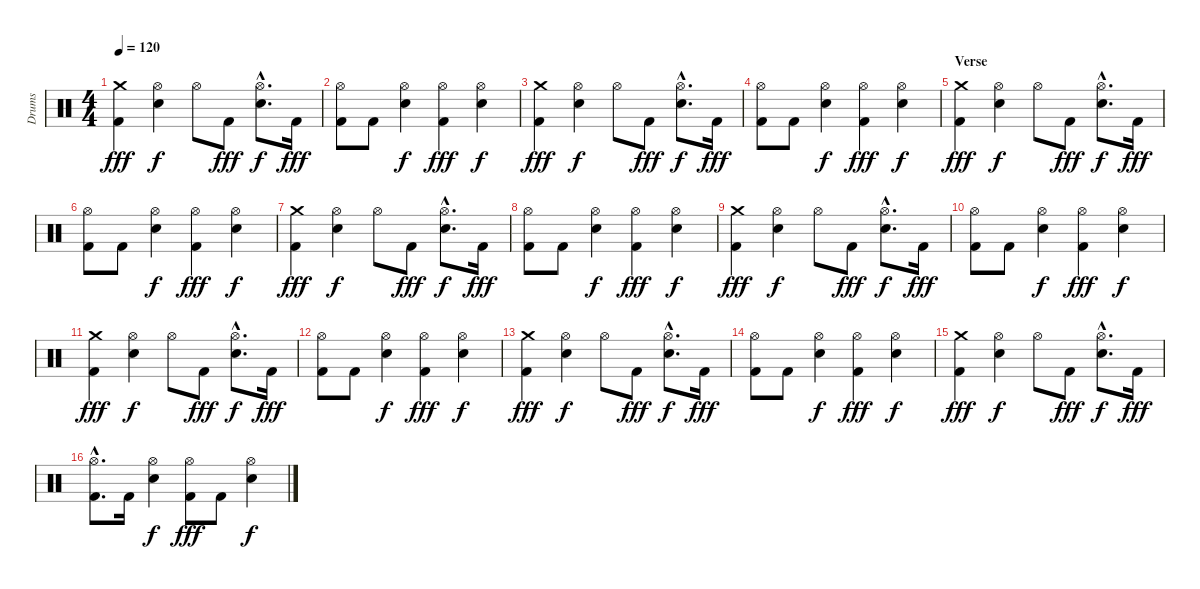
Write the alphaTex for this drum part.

\track ("Drums" "Drums") {instrument percussion}
\staff {score}
\articulation defaults
\ts (4 4)
\tempo 120
\clef neutral
\ks c
("Crash medium (hit)" "Kick (hit) 2").4{dy fff} ("Hi-Hat (open)" "Electric Snare (hit)").4{dy f} "Hi-Hat (open)".8 "Kick (hit) 2".8{dy fff} ("Hi-Hat (open)"{hac} "Electric Snare (hit)"{hac}).8{d dy f} "Kick (hit) 2".16{dy fff} |
("Hi-Hat (open)" "Kick (hit) 2").8 "Kick (hit) 2".8 ("Hi-Hat (open)" "Electric Snare (hit)").4{dy f} ("Hi-Hat (open)" "Kick (hit) 2").4{dy fff} ("Hi-Hat (open)" "Electric Snare (hit)").4{dy f} |
("Crash medium (hit)" "Kick (hit) 2").4{dy fff} ("Hi-Hat (open)" "Electric Snare (hit)").4{dy f} "Hi-Hat (open)".8 "Kick (hit) 2".8{dy fff} ("Hi-Hat (open)"{hac} "Electric Snare (hit)"{hac}).8{d dy f} "Kick (hit) 2".16{dy fff} |
("Hi-Hat (open)" "Kick (hit) 2").8 "Kick (hit) 2".8 ("Hi-Hat (open)" "Electric Snare (hit)").4{dy f} ("Hi-Hat (open)" "Kick (hit) 2").4{dy fff} ("Hi-Hat (open)" "Electric Snare (hit)").4{dy f} |
\section ("" "Verse")
("Crash medium (hit)" "Kick (hit) 2").4{dy fff} ("Hi-Hat (open)" "Electric Snare (hit)").4{dy f} "Hi-Hat (open)".8 "Kick (hit) 2".8{dy fff} ("Hi-Hat (open)"{hac} "Electric Snare (hit)"{hac}).8{d dy f} "Kick (hit) 2".16{dy fff} |
("Hi-Hat (open)" "Kick (hit) 2").8 "Kick (hit) 2".8 ("Hi-Hat (open)" "Electric Snare (hit)").4{dy f} ("Hi-Hat (open)" "Kick (hit) 2").4{dy fff} ("Hi-Hat (open)" "Electric Snare (hit)").4{dy f} |
("Crash medium (hit)" "Kick (hit) 2").4{dy fff} ("Hi-Hat (open)" "Electric Snare (hit)").4{dy f} "Hi-Hat (open)".8 "Kick (hit) 2".8{dy fff} ("Hi-Hat (open)"{hac} "Electric Snare (hit)"{hac}).8{d dy f} "Kick (hit) 2".16{dy fff} |
("Hi-Hat (open)" "Kick (hit) 2").8 "Kick (hit) 2".8 ("Hi-Hat (open)" "Electric Snare (hit)").4{dy f} ("Hi-Hat (open)" "Kick (hit) 2").4{dy fff} ("Hi-Hat (open)" "Electric Snare (hit)").4{dy f} |
("Crash medium (hit)" "Kick (hit) 2").4{dy fff} ("Hi-Hat (open)" "Electric Snare (hit)").4{dy f} "Hi-Hat (open)".8 "Kick (hit) 2".8{dy fff} ("Hi-Hat (open)"{hac} "Electric Snare (hit)"{hac}).8{d dy f} "Kick (hit) 2".16{dy fff} |
("Hi-Hat (open)" "Kick (hit) 2").8 "Kick (hit) 2".8 ("Hi-Hat (open)" "Electric Snare (hit)").4{dy f} ("Hi-Hat (open)" "Kick (hit) 2").4{dy fff} ("Hi-Hat (open)" "Electric Snare (hit)").4{dy f} |
("Crash medium (hit)" "Kick (hit) 2").4{dy fff} ("Hi-Hat (open)" "Electric Snare (hit)").4{dy f} "Hi-Hat (open)".8 "Kick (hit) 2".8{dy fff} ("Hi-Hat (open)"{hac} "Electric Snare (hit)"{hac}).8{d dy f} "Kick (hit) 2".16{dy fff} |
("Hi-Hat (open)" "Kick (hit) 2").8 "Kick (hit) 2".8 ("Hi-Hat (open)" "Electric Snare (hit)").4{dy f} ("Hi-Hat (open)" "Kick (hit) 2").4{dy fff} ("Hi-Hat (open)" "Electric Snare (hit)").4{dy f} |
("Crash medium (hit)" "Kick (hit) 2").4{dy fff} ("Hi-Hat (open)" "Electric Snare (hit)").4{dy f} "Hi-Hat (open)".8 "Kick (hit) 2".8{dy fff} ("Hi-Hat (open)"{hac} "Electric Snare (hit)"{hac}).8{d dy f} "Kick (hit) 2".16{dy fff} |
("Hi-Hat (open)" "Kick (hit) 2").8 "Kick (hit) 2".8 ("Hi-Hat (open)" "Electric Snare (hit)").4{dy f} ("Hi-Hat (open)" "Kick (hit) 2").4{dy fff} ("Hi-Hat (open)" "Electric Snare (hit)").4{dy f} |
("Crash medium (hit)" "Kick (hit) 2").4{dy fff} ("Hi-Hat (open)" "Electric Snare (hit)").4{dy f} "Hi-Hat (open)".8 "Kick (hit) 2".8{dy fff} ("Hi-Hat (open)"{hac} "Electric Snare (hit)"{hac}).8{d dy f} "Kick (hit) 2".16{dy fff} |
("Hi-Hat (open)"{hac} "Kick (hit) 2"{hac}).8{d} "Kick (hit) 2".16 ("Hi-Hat (open)" "Electric Snare (hit)").4{dy f} ("Hi-Hat (open)" "Kick (hit) 2").8{dy fff} "Kick (hit) 2".8 ("Hi-Hat (open)" "Electric Snare (hit)").4{dy f}
